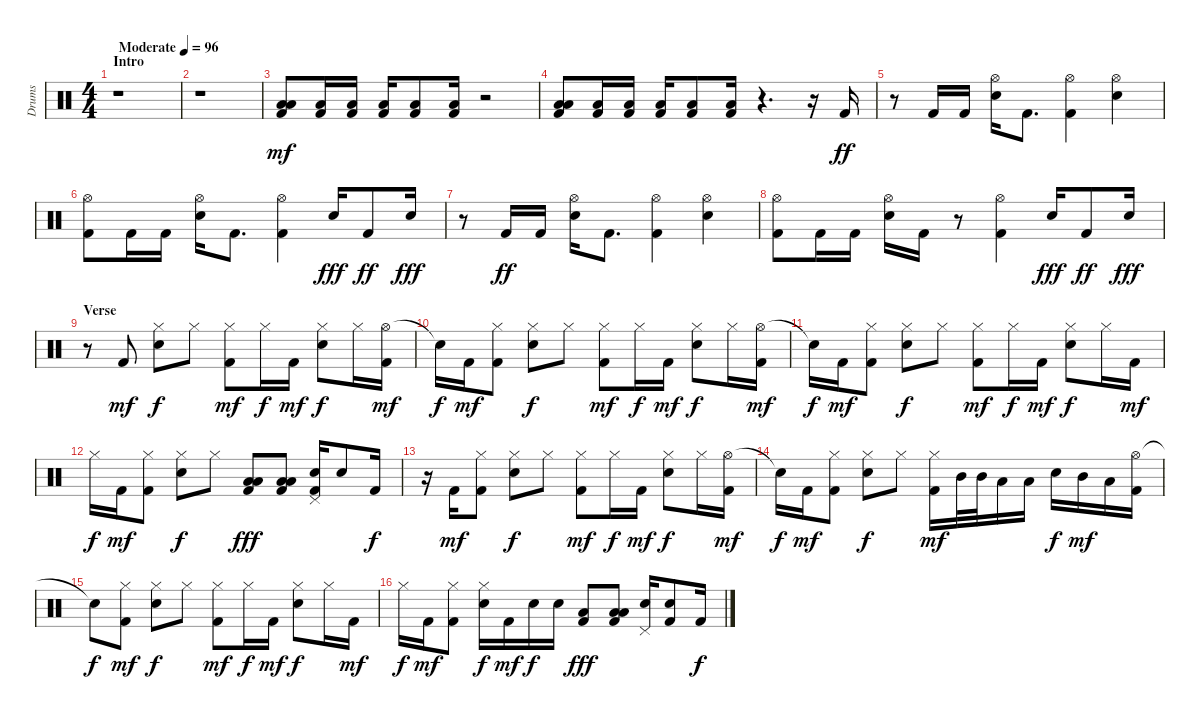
\track ("Drums" "Drums") {instrument percussion}
\staff {score}
\articulation defaults
\ts (4 4)
\section ("" "Intro")
\tempo (96 "Moderate")
\clef neutral
\ks c
r.1{dy mf} |
r.1 |
("Low Floor Tom (hit)" "Low Tom (hit)" "Kick (hit) 2").8 ("Low Tom (hit)" "Kick (hit) 2").16 ("Low Tom (hit)" "Kick (hit) 2").16 ("Low Tom (hit)" "Kick (hit) 2").16 ("Low Tom (hit)" "Kick (hit) 2").8 ("Low Tom (hit)" "Kick (hit) 2").16 r.2 |
("Low Floor Tom (hit)" "Low Tom (hit)" "Kick (hit) 2").8 ("Low Tom (hit)" "Kick (hit) 2").16 ("Low Tom (hit)" "Kick (hit) 2").16 ("Low Tom (hit)" "Kick (hit) 2").16 ("Low Tom (hit)" "Kick (hit) 2").8 ("Low Tom (hit)" "Kick (hit) 2").16 r.4{d} r.16 "Kick (hit) 2".16{dy ff} |
r.8 "Kick (hit) 2".16 "Kick (hit) 2".16 ("Snare (hit) 2" "Hi-Hat (open)").16 "Kick (hit) 2".8{d} ("Hi-Hat (open)" "Kick (hit) 2").4 ("Snare (hit) 2" "Hi-Hat (open)").4 |
("Hi-Hat (open)" "Kick (hit) 2").8 "Kick (hit) 2".16 "Kick (hit) 2".16 ("Snare (hit) 2" "Hi-Hat (open)").16 "Kick (hit) 2".8{d} ("Hi-Hat (open)" "Kick (hit) 2").4 "Snare (hit) 2".16{dy fff} "Kick (hit) 2".8{dy ff} "Snare (hit) 2".16{dy fff} |
r.8 "Kick (hit) 2".16{dy ff} "Kick (hit) 2".16 ("Snare (hit) 2" "Hi-Hat (open)").16 "Kick (hit) 2".8{d} ("Hi-Hat (open)" "Kick (hit) 2").4 ("Snare (hit) 2" "Hi-Hat (open)").4 |
("Hi-Hat (open)" "Kick (hit) 2").8 "Kick (hit) 2".16 "Kick (hit) 2".16 ("Snare (hit) 2" "Hi-Hat (open)").16 "Kick (hit) 2".16 r.8 ("Hi-Hat (open)" "Kick (hit) 2").4 "Snare (hit) 2".16{dy fff} "Kick (hit) 2".8{dy ff} "Snare (hit) 2".16{dy fff} |
\section ("" "Verse")
r.8 "Kick (hit) 2".8{dy mf} ("Snare (hit) 2" "Hi-Hat (closed)").8{dy f} "Hi-Hat (closed)".8 ("Hi-Hat (closed)" "Kick (hit) 2").8{dy mf} "Hi-Hat (closed)".16{dy f} "Kick (hit) 2".16{dy mf} ("Snare (hit) 2" "Hi-Hat (closed)").8{dy f} "Hi-Hat (closed)".16 ("Hi-Hat (open)" "Kick (hit) 2").16{dy mf} |
"Snare (hit)"{t}.16{dy f} "Kick (hit) 2".16{dy mf} ("Hi-Hat (closed)" "Kick (hit) 2").8 ("Snare (hit) 2" "Hi-Hat (closed)").8{dy f} "Hi-Hat (closed)".8 ("Hi-Hat (closed)" "Kick (hit) 2").8{dy mf} "Hi-Hat (closed)".16{dy f} "Kick (hit) 2".16{dy mf} ("Snare (hit) 2" "Hi-Hat (closed)").8{dy f} "Hi-Hat (closed)".16 ("Hi-Hat (open)" "Kick (hit) 2").16{dy mf} |
"Snare (hit)"{t}.16{dy f} "Kick (hit) 2".16{dy mf} ("Hi-Hat (closed)" "Kick (hit) 2").8 ("Snare (hit) 2" "Hi-Hat (closed)").8{dy f} "Hi-Hat (closed)".8 ("Hi-Hat (closed)" "Kick (hit) 2").8{dy mf} "Hi-Hat (closed)".16{dy f} "Kick (hit) 2".16{dy mf} ("Snare (hit) 2" "Hi-Hat (closed)").8{dy f} "Hi-Hat (closed)".16 "Kick (hit) 2".16{dy mf} |
"Hi-Hat (closed)".16{dy f} "Kick (hit) 2".16{dy mf} ("Hi-Hat (closed)" "Kick (hit) 2").8 ("Snare (hit) 2" "Hi-Hat (closed)").8{dy f} "Hi-Hat (closed)".8 ("Low Floor Tom (hit)" "Low Tom (hit)" "Kick (hit) 2").8{dy fff} ("Low Floor Tom (hit)" "Low Tom (hit)" "Kick (hit) 2").8 ("Snare (hit) 2" "Pedal Hi-Hat (hit)" "Kick (hit) 2").16 "Snare (hit) 2".8 "Kick (hit) 2".16{dy f} |
r.16 "Kick (hit) 2".16{dy mf} ("Hi-Hat (closed)" "Kick (hit) 2").8 ("Snare (hit) 2" "Hi-Hat (closed)").8{dy f} "Hi-Hat (closed)".8 ("Hi-Hat (closed)" "Kick (hit) 2").8{dy mf} "Hi-Hat (closed)".16{dy f} "Kick (hit) 2".16{dy mf} ("Snare (hit) 2" "Hi-Hat (closed)").8{dy f} "Hi-Hat (closed)".16 ("Hi-Hat (open)" "Kick (hit) 2").16{dy mf} |
"Snare (hit)"{t}.16{dy f} "Kick (hit) 2".16{dy mf} ("Hi-Hat (closed)" "Kick (hit) 2").8 ("Snare (hit) 2" "Hi-Hat (closed)").8{dy f} "Hi-Hat (closed)".8 ("Hi-Hat (closed)" "Kick (hit) 2").16{dy mf} "Mid Tom (hit)".32 "Mid Tom (hit)".32 "Low Tom (hit)".16 "Low Tom (hit)".16 "Snare (hit) 2".16{dy f} "Mid Tom (hit)".16{dy mf} "Low Tom (hit)".16 ("Hi-Hat (open)" "Kick (hit) 2").16 |
"Snare (hit)"{t}.8{dy f} ("Hi-Hat (closed)" "Kick (hit) 2").8{dy mf} ("Snare (hit) 2" "Hi-Hat (closed)").8{dy f} "Hi-Hat (closed)".8 ("Hi-Hat (closed)" "Kick (hit) 2").8{dy mf} "Hi-Hat (closed)".16{dy f} "Kick (hit) 2".16{dy mf} ("Snare (hit) 2" "Hi-Hat (closed)").8{dy f} "Hi-Hat (closed)".16 "Kick (hit) 2".16{dy mf} |
"Hi-Hat (closed)".16{dy f} "Kick (hit) 2".16{dy mf} ("Hi-Hat (closed)" "Kick (hit) 2").8 ("Snare (hit) 2" "Hi-Hat (closed)").16{dy f} "Kick (hit) 2".16{dy mf} "Snare (hit) 2".16{dy f} "Snare (hit) 2".16 ("Low Tom (hit)" "Kick (hit) 2").8{dy fff} ("Low Floor Tom (hit)" "Low Tom (hit)" "Kick (hit) 2").8 ("Snare (hit) 2" "Pedal Hi-Hat (hit)").16 ("Snare (hit) 2" "Kick (hit) 2").8 "Kick (hit) 2".16{dy f}
